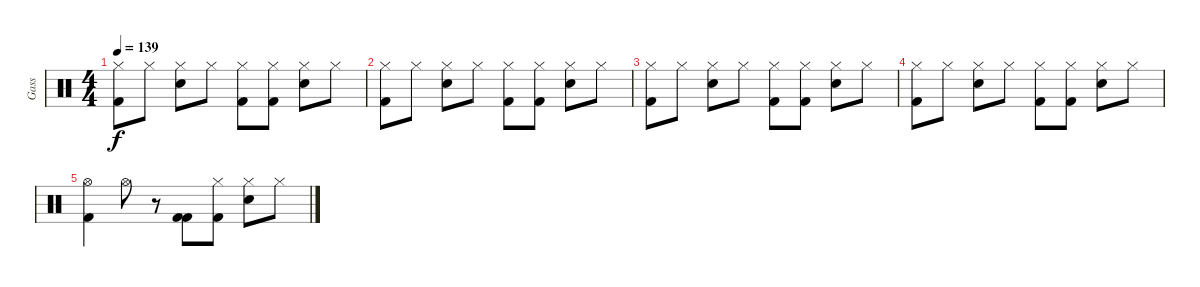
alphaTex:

\track ("Gass" "Gass") {instrument percussion}
\staff {score}
\articulation defaults
\ts (4 4)
\tempo 139
\clef neutral
\ks c
("Hi-Hat (closed)" "Kick (hit) 2").8{dy f} "Hi-Hat (closed)".8 ("Hi-Hat (closed)" "Electric Snare (hit)").8 "Hi-Hat (closed)".8 ("Hi-Hat (closed)" "Kick (hit) 2").8 ("Hi-Hat (closed)" "Kick (hit) 2").8 ("Hi-Hat (closed)" "Electric Snare (hit)").8 "Hi-Hat (closed)".8 |
("Hi-Hat (closed)" "Kick (hit) 2").8 "Hi-Hat (closed)".8 ("Hi-Hat (closed)" "Electric Snare (hit)").8 "Hi-Hat (closed)".8 ("Hi-Hat (closed)" "Kick (hit) 2").8 ("Hi-Hat (closed)" "Kick (hit) 2").8 ("Hi-Hat (closed)" "Electric Snare (hit)").8 "Hi-Hat (closed)".8 |
("Hi-Hat (closed)" "Kick (hit) 2").8 "Hi-Hat (closed)".8 ("Hi-Hat (closed)" "Electric Snare (hit)").8 "Hi-Hat (closed)".8 ("Hi-Hat (closed)" "Kick (hit) 2").8 ("Hi-Hat (closed)" "Kick (hit) 2").8 ("Hi-Hat (closed)" "Electric Snare (hit)").8 "Hi-Hat (closed)".8 |
("Hi-Hat (closed)" "Kick (hit) 2").8 "Hi-Hat (closed)".8 ("Hi-Hat (closed)" "Electric Snare (hit)").8 "Hi-Hat (closed)".8 ("Hi-Hat (closed)" "Kick (hit) 2").8 ("Hi-Hat (closed)" "Kick (hit) 2").8 ("Hi-Hat (closed)" "Electric Snare (hit)").8 "Hi-Hat (closed)".8 |
("Hi-Hat (open)" "Kick (hit) 2").4 "Hi-Hat (open)".8 r.8 ("Kick (hit) 2" "Kick (hit) 2").8 ("Hi-Hat (closed)" "Kick (hit) 2").8 ("Hi-Hat (closed)" "Electric Snare (hit)").8 "Hi-Hat (closed)".8
